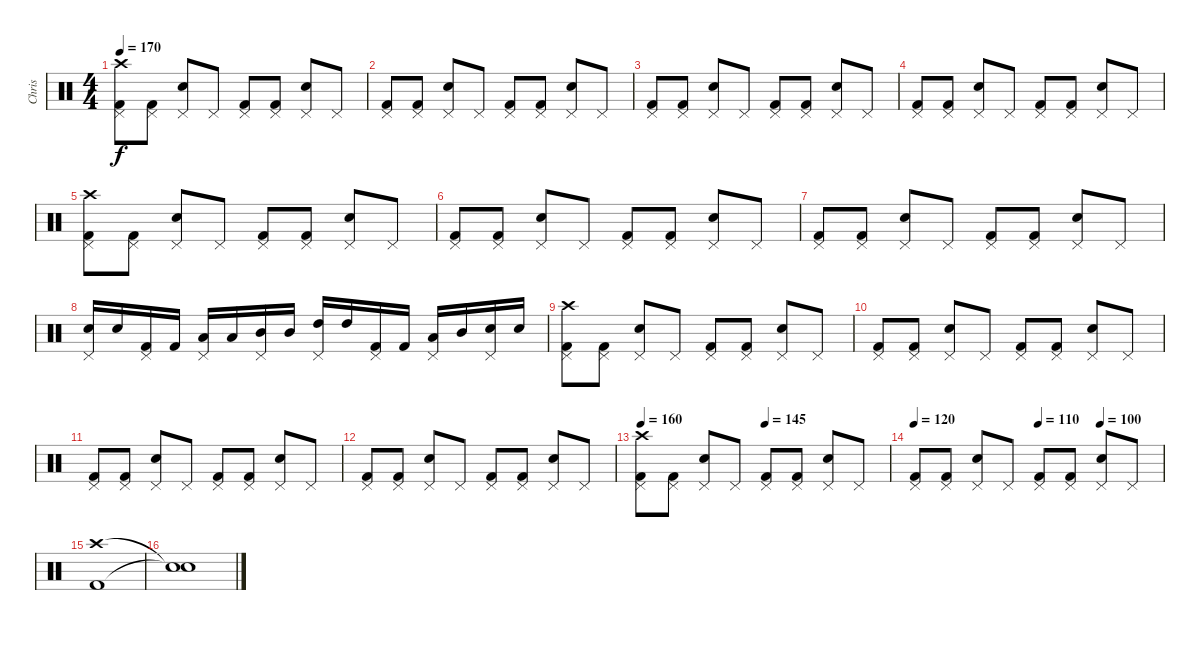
\track ("Chris" "Chris") {instrument percussion}
\staff {score}
\articulation defaults
\ts (4 4)
\tempo 170
\clef neutral
\ks c
("Pedal Hi-Hat (hit)" "Kick (hit) 2" "Crash high (hit)").8{dy f} ("Pedal Hi-Hat (hit)" "Kick (hit) 2").8 ("Pedal Hi-Hat (hit)" "Electric Snare (hit)").8 "Pedal Hi-Hat (hit)".8 ("Pedal Hi-Hat (hit)" "Kick (hit) 2").8 ("Pedal Hi-Hat (hit)" "Kick (hit) 2").8 ("Pedal Hi-Hat (hit)" "Electric Snare (hit)").8 "Pedal Hi-Hat (hit)".8 |
("Pedal Hi-Hat (hit)" "Kick (hit) 2").8 ("Pedal Hi-Hat (hit)" "Kick (hit) 2").8 ("Pedal Hi-Hat (hit)" "Electric Snare (hit)").8 "Pedal Hi-Hat (hit)".8 ("Pedal Hi-Hat (hit)" "Kick (hit) 2").8 ("Pedal Hi-Hat (hit)" "Kick (hit) 2").8 ("Pedal Hi-Hat (hit)" "Electric Snare (hit)").8 "Pedal Hi-Hat (hit)".8 |
("Pedal Hi-Hat (hit)" "Kick (hit) 2").8 ("Pedal Hi-Hat (hit)" "Kick (hit) 2").8 ("Pedal Hi-Hat (hit)" "Electric Snare (hit)").8 "Pedal Hi-Hat (hit)".8 ("Pedal Hi-Hat (hit)" "Kick (hit) 2").8 ("Pedal Hi-Hat (hit)" "Kick (hit) 2").8 ("Pedal Hi-Hat (hit)" "Electric Snare (hit)").8 "Pedal Hi-Hat (hit)".8 |
("Pedal Hi-Hat (hit)" "Kick (hit) 2").8 ("Pedal Hi-Hat (hit)" "Kick (hit) 2").8 ("Pedal Hi-Hat (hit)" "Electric Snare (hit)").8 "Pedal Hi-Hat (hit)".8 ("Pedal Hi-Hat (hit)" "Kick (hit) 2").8 ("Pedal Hi-Hat (hit)" "Kick (hit) 2").8 ("Pedal Hi-Hat (hit)" "Electric Snare (hit)").8 "Pedal Hi-Hat (hit)".8 |
("Pedal Hi-Hat (hit)" "Kick (hit) 2" "Crash high (hit)").8 ("Pedal Hi-Hat (hit)" "Kick (hit) 2").8 ("Pedal Hi-Hat (hit)" "Electric Snare (hit)").8 "Pedal Hi-Hat (hit)".8 ("Pedal Hi-Hat (hit)" "Kick (hit) 2").8 ("Pedal Hi-Hat (hit)" "Kick (hit) 2").8 ("Pedal Hi-Hat (hit)" "Electric Snare (hit)").8 "Pedal Hi-Hat (hit)".8 |
("Pedal Hi-Hat (hit)" "Kick (hit) 2").8 ("Pedal Hi-Hat (hit)" "Kick (hit) 2").8 ("Pedal Hi-Hat (hit)" "Electric Snare (hit)").8 "Pedal Hi-Hat (hit)".8 ("Pedal Hi-Hat (hit)" "Kick (hit) 2").8 ("Pedal Hi-Hat (hit)" "Kick (hit) 2").8 ("Pedal Hi-Hat (hit)" "Electric Snare (hit)").8 "Pedal Hi-Hat (hit)".8 |
("Pedal Hi-Hat (hit)" "Kick (hit) 2").8 ("Pedal Hi-Hat (hit)" "Kick (hit) 2").8 ("Pedal Hi-Hat (hit)" "Electric Snare (hit)").8 "Pedal Hi-Hat (hit)".8 ("Pedal Hi-Hat (hit)" "Kick (hit) 2").8 ("Pedal Hi-Hat (hit)" "Kick (hit) 2").8 ("Pedal Hi-Hat (hit)" "Electric Snare (hit)").8 "Pedal Hi-Hat (hit)".8 |
("Pedal Hi-Hat (hit)" "Electric Snare (hit)").16 "Electric Snare (hit)".16 ("Pedal Hi-Hat (hit)" "Kick (hit) 2").16 "Kick (hit) 2".16 ("Pedal Hi-Hat (hit)" "Low Tom (hit)").16 "Low Tom (hit)".16 ("Pedal Hi-Hat (hit)" "Mid Tom (hit)").16 "Mid Tom (hit)".16 ("Pedal Hi-Hat (hit)" "High Tom (hit)").16 "High Tom (hit)".16 ("Pedal Hi-Hat (hit)" "Kick (hit) 2").16 "Kick (hit) 2".16 ("Pedal Hi-Hat (hit)" "Low Tom (hit)").16 "Mid Tom (hit)".16 ("Pedal Hi-Hat (hit)" "Electric Snare (hit)").16 "Electric Snare (hit)".16 |
("Pedal Hi-Hat (hit)" "Kick (hit) 2" "Crash high (hit)").8 ("Pedal Hi-Hat (hit)" "Kick (hit) 2").8 ("Pedal Hi-Hat (hit)" "Electric Snare (hit)").8 "Pedal Hi-Hat (hit)".8 ("Pedal Hi-Hat (hit)" "Kick (hit) 2").8 ("Pedal Hi-Hat (hit)" "Kick (hit) 2").8 ("Pedal Hi-Hat (hit)" "Electric Snare (hit)").8 "Pedal Hi-Hat (hit)".8 |
("Pedal Hi-Hat (hit)" "Kick (hit) 2").8 ("Pedal Hi-Hat (hit)" "Kick (hit) 2").8 ("Pedal Hi-Hat (hit)" "Electric Snare (hit)").8 "Pedal Hi-Hat (hit)".8 ("Pedal Hi-Hat (hit)" "Kick (hit) 2").8 ("Pedal Hi-Hat (hit)" "Kick (hit) 2").8 ("Pedal Hi-Hat (hit)" "Electric Snare (hit)").8 "Pedal Hi-Hat (hit)".8 |
("Pedal Hi-Hat (hit)" "Kick (hit) 2").8 ("Pedal Hi-Hat (hit)" "Kick (hit) 2").8 ("Pedal Hi-Hat (hit)" "Electric Snare (hit)").8 "Pedal Hi-Hat (hit)".8 ("Pedal Hi-Hat (hit)" "Kick (hit) 2").8 ("Pedal Hi-Hat (hit)" "Kick (hit) 2").8 ("Pedal Hi-Hat (hit)" "Electric Snare (hit)").8 "Pedal Hi-Hat (hit)".8 |
("Pedal Hi-Hat (hit)" "Kick (hit) 2").8 ("Pedal Hi-Hat (hit)" "Kick (hit) 2").8 ("Pedal Hi-Hat (hit)" "Electric Snare (hit)").8 "Pedal Hi-Hat (hit)".8 ("Pedal Hi-Hat (hit)" "Kick (hit) 2").8 ("Pedal Hi-Hat (hit)" "Kick (hit) 2").8 ("Pedal Hi-Hat (hit)" "Electric Snare (hit)").8 "Pedal Hi-Hat (hit)".8 |
\tempo 160
\tempo (145 0.5)
("Pedal Hi-Hat (hit)" "Kick (hit) 2" "Crash high (hit)").8 ("Pedal Hi-Hat (hit)" "Kick (hit) 2").8 ("Pedal Hi-Hat (hit)" "Electric Snare (hit)").8 "Pedal Hi-Hat (hit)".8 ("Pedal Hi-Hat (hit)" "Kick (hit) 2").8 ("Pedal Hi-Hat (hit)" "Kick (hit) 2").8 ("Pedal Hi-Hat (hit)" "Electric Snare (hit)").8 "Pedal Hi-Hat (hit)".8 |
\tempo 120
\tempo (110 0.5)
\tempo (100 0.75)
("Pedal Hi-Hat (hit)" "Kick (hit) 2").8 ("Pedal Hi-Hat (hit)" "Kick (hit) 2").8 ("Pedal Hi-Hat (hit)" "Electric Snare (hit)").8 "Pedal Hi-Hat (hit)".8 ("Pedal Hi-Hat (hit)" "Kick (hit) 2").8 ("Pedal Hi-Hat (hit)" "Kick (hit) 2").8 ("Pedal Hi-Hat (hit)" "Electric Snare (hit)").8 "Pedal Hi-Hat (hit)".8 |
("Kick (hit) 2" "Crash high (hit)").1{volume 0} |
("Snare (hit)"{t} "Snare (hit)"{t}).1
